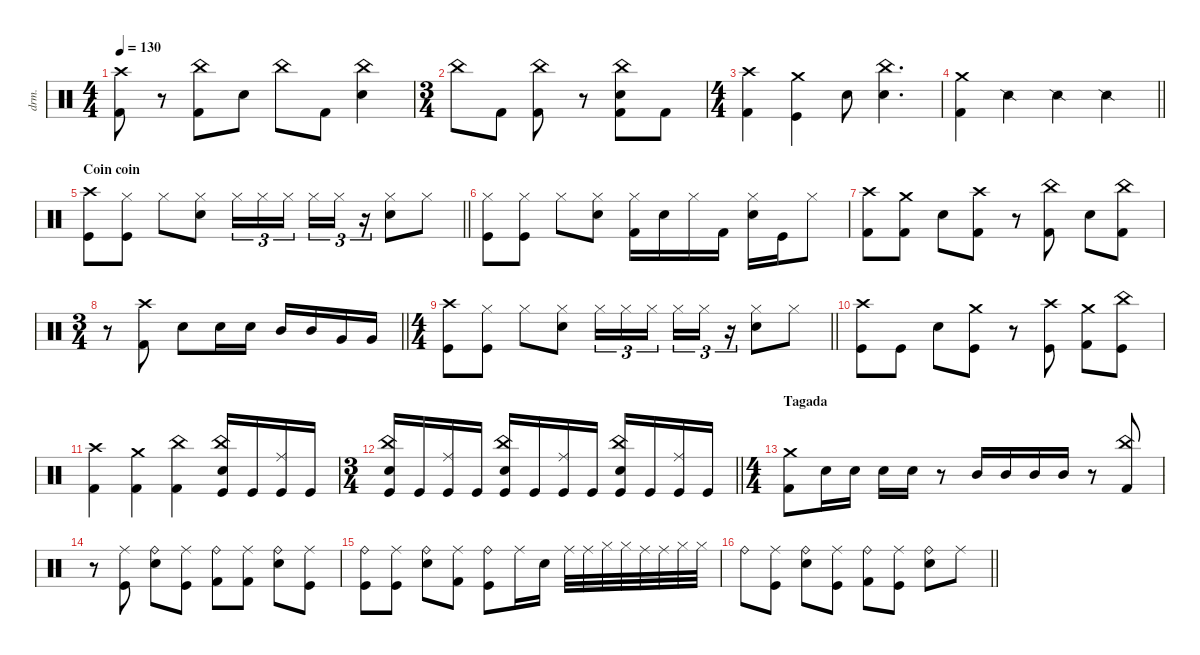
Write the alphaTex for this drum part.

\defaultSystemsLayout 4
\hideDynamics
\bracketExtendMode nobrackets
\track ("Manouche" "drm.") {instrument percussion}
\staff {score}
\articulation defaults
\ts (4 4)
\tempo 130
\clef neutral
\ks c
("Crash high (hit)" "Kick (hit) 2").8{dy f beam Down} r.8{beam Down} ("China (hit)" "Kick (hit) 2").8{beam Down} "Snare (hit) 2".8{beam Down} "China (hit)".8{beam Down} "Kick (hit) 2".8{beam Down} ("China (hit)" "Snare (hit) 2").4{beam Down} |
\ts (3 4)
\beaming (8 2 2 2 2)
"China (hit)".8{beam Down} "Kick (hit) 2".8{beam Down} ("China (hit)" "Kick (hit) 2").8{beam Down} r.8{beam Down} ("China (hit)" "Snare (hit) 2" "Kick (hit) 2").8{beam Down} "Kick (hit) 2".8{beam Down} |
\ts (4 4)
\beaming (8 2 2 2 2)
("Kick (hit) 2" "Crash high (hit)").4{beam Down} ("Crash medium (hit)" "Kick (hit)").4{beam Down} "Snare (hit) 2".8{beam Down} ("China (hit)" "Snare (hit) 2").4{d beam Down} |
\barLineRight lightlight
("Kick (hit) 2" "Crash medium (hit)").4{beam Down} "Snare (side stick) 2".4{beam Down} "Snare (side stick) 2".4{beam Down} "Snare (side stick) 2".4{beam Down} |
\section ("" "Coin coin")
\barLineRight lightlight
("Crash high (hit)" "Kick (hit)").8{beam Down} ("Hi-Hat (closed)" "Kick (hit)").8{beam Down} "Hi-Hat (closed)".8{beam Down} ("Hi-Hat (closed)" "Snare (hit) 2").8{beam Down} "Hi-Hat (closed)".16{tu (3 2) dy mp beam Down} "Hi-Hat (closed)".16{tu (3 2) beam Down} "Hi-Hat (closed)".16{tu (3 2) beam Down} "Hi-Hat (closed)".16{tu (3 2) beam Down} "Hi-Hat (closed)".16{tu (3 2) beam Down} r.16{tu (3 2) beam Down} ("Snare (hit) 2" "Hi-Hat (closed)").8{dy f beam Down} "Hi-Hat (closed)".8{beam Down} |
("Hi-Hat (closed)" "Kick (hit)").8{beam Down} ("Hi-Hat (closed)" "Kick (hit)").8{beam Down} "Hi-Hat (closed)".8{beam Down} ("Hi-Hat (closed)" "Snare (hit) 2").8{beam Down} ("Hi-Hat (closed)" "Kick (hit) 2").16{beam Down} "Snare (hit) 2".16{beam Down} "Hi-Hat (closed)".16{beam Down} "Kick (hit) 2".16{beam Down} ("Hi-Hat (closed)" "Snare (hit) 2").16{beam Down} "Kick (hit)".16{beam Down} "Hi-Hat (closed)".8{beam Down} |
("Crash high (hit)" "Kick (hit) 2").8{beam Down} ("Crash medium (hit)" "Kick (hit) 2").8{beam Down} "Snare (hit) 2".8{beam Down} ("Kick (hit) 2" "Crash high (hit)").8{beam Down} r.8{beam Down} ("Kick (hit) 2" "China (hit)").8{beam Down} "Snare (hit) 2".8{beam Down} ("Kick (hit) 2" "China (hit)").8{beam Down} |
\ts (3 4)
\beaming (8 2 2 2)
\barLineRight lightlight
r.8{beam Down} ("Crash high (hit)" "Kick (hit) 2").8{beam Down} "Snare (hit) 2".8{beam Down} "Snare (hit) 2".16{beam Down} "Snare (hit) 2".16{beam Down} "Mid Tom (hit)".16{beam Up} "Mid Tom (hit)".16{beam Up} "Very Low Tom (hit)".16{beam Up} "Very Low Tom (hit)".16{beam Up} |
\ts (4 4)
\beaming (8 2 2 2 2)
\barLineRight lightlight
("Crash high (hit)" "Kick (hit)").8{beam Down} ("Hi-Hat (closed)" "Kick (hit)").8{beam Down} "Hi-Hat (closed)".8{beam Down} ("Hi-Hat (closed)" "Snare (hit) 2").8{beam Down} "Hi-Hat (closed)".16{tu (3 2) dy mf beam Down} "Hi-Hat (closed)".16{tu (3 2) dy mp beam Down} "Hi-Hat (closed)".16{tu (3 2) dy mf beam Down} "Hi-Hat (closed)".16{tu (3 2) beam Down} "Hi-Hat (closed)".16{tu (3 2) dy mp beam Down} r.16{tu (3 2) beam Down} ("Snare (hit) 2" "Hi-Hat (closed)").8{dy f beam Down} "Hi-Hat (closed)".8{beam Down} |
("Crash high (hit)" "Kick (hit)").8{beam Down} "Kick (hit)".8{beam Down} "Snare (hit) 2".8{beam Down} ("Crash medium (hit)" "Kick (hit)").8{beam Down} r.8{beam Down} ("Crash high (hit)" "Kick (hit)").8{beam Down} ("Kick (hit) 2" "Crash medium (hit)").8{beam Down} ("China (hit)" "Kick (hit)").8{beam Down} |
("Kick (hit) 2" "Crash high (hit)").4{beam Down} ("Crash medium (hit)" "Kick (hit) 2").4{beam Down} ("China (hit)" "Kick (hit) 2").4{beam Down} ("China (hit)" "Snare (hit) 2" "Kick (hit)").16{beam Up} "Kick (hit)".16{beam Up} ("Ride (middle)" "Kick (hit)").16{beam Up} "Kick (hit)".16{beam Up} |
\ts (3 4)
\beaming (8 2 2 2)
\barLineRight lightlight
("China (hit)" "Snare (hit) 2" "Kick (hit)").16{beam Up} "Kick (hit)".16{beam Up} ("Ride (middle)" "Kick (hit)").16{beam Up} "Kick (hit)".16{beam Up} ("China (hit)" "Snare (hit) 2" "Kick (hit)").16{beam Up} "Kick (hit)".16{beam Up} ("Ride (middle)" "Kick (hit)").16{beam Up} "Kick (hit)".16{beam Up} ("China (hit)" "Snare (hit) 2" "Kick (hit)").16{beam Up} "Kick (hit)".16{beam Up} ("Kick (hit)" "Ride (middle)").16{beam Up} "Kick (hit)".16{beam Up} |
\ts (4 4)
\beaming (8 2 2 2 2)
\section ("" "Tagada")
("Crash medium (hit)" "Kick (hit) 2").8{beam Down} "Snare (hit) 2".16{beam Down} "Snare (hit) 2".16{beam Down} "Snare (hit) 2".16{beam Down} "Snare (hit) 2".16{beam Down} r.8{beam Down} "Mid Tom (hit)".16{beam Up} "Mid Tom (hit)".16{beam Up} "Mid Tom (hit)".16{beam Up} "Mid Tom (hit)".16{beam Up} r.8{beam Up} ("China (hit)" "Kick (hit) 2").8{beam Down} |
r.8{beam Down} ("Ride (middle)" "Kick (hit)").8{dy mp beam Down} ("Snare (hit) 2" "Ride (bell)").8{dy f beam Down} ("Kick (hit)" "Ride (middle)").8{beam Down} ("Ride (bell)" "Kick (hit) 2").8{beam Down} ("Ride (middle)" "Kick (hit) 2").8{dy mp beam Down} ("Ride (bell)" "Snare (hit) 2").8{dy f beam Down} ("Ride (middle)" "Kick (hit)").8{dy mp beam Down} |
("Kick (hit)" "Ride (bell)").8{dy f beam Down} ("Kick (hit)" "Ride (middle)").8{beam Down} ("Ride (bell)" "Snare (hit) 2").8{beam Down} ("Ride (middle)" "Kick (hit) 2").8{dy mp beam Down} ("Ride (bell)" "Kick (hit)").8{dy f beam Down} "Ride (middle)".16{dy mp beam Down} "Snare (hit) 2".16{dy f beam Down} "Ride (middle)".32{beam Down} "Ride (middle)".32{beam Down} "Hi-Hat (closed)".32{beam Down} "Hi-Hat (closed)".32{beam Down} "Ride (middle)".32{beam Down} "Ride (middle)".32{beam Down} "Hi-Hat (closed)".32{beam Down} "Hi-Hat (closed)".32{beam Down} |
\barLineRight lightlight "Ride (bell)".8{beam Down}
("Kick (hit)" "Ride (middle)").8{beam Down} ("Snare (hit) 2" "Ride (bell)").8{beam Down} ("Ride (middle)" "Kick (hit)").8{dy mp beam Down} ("Ride (bell)" "Kick (hit) 2").8{dy f beam Down} ("Ride (middle)" "Kick (hit)").8{dy mp beam Down} ("Snare (hit) 2" "Ride (bell)").8{dy f beam Down} "Ride (middle)".8{dy mp beam Down}
